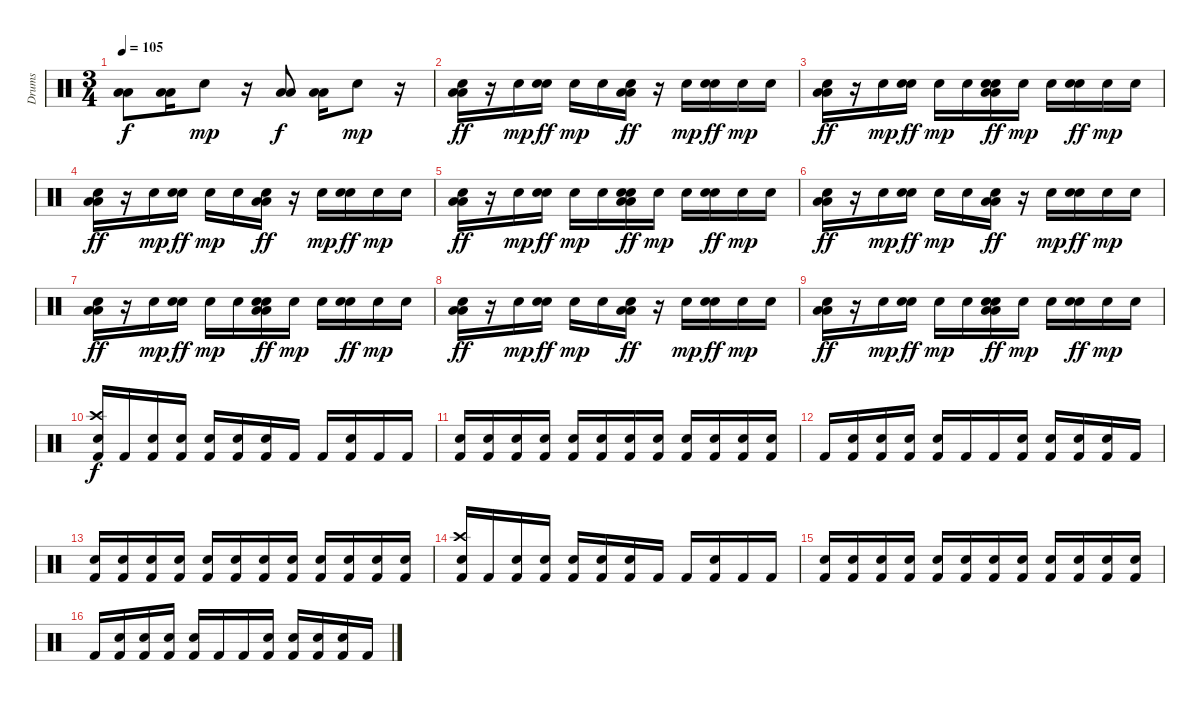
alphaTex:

\track ("Drums" "Drums") {instrument percussion}
\staff {score}
\articulation defaults
\ts (3 4)
\tempo 105
\clef neutral
\ks c
("Low Floor Tom (hit)" "Low Floor Tom (hit)").8{dy f} ("Low Floor Tom (hit)" "Low Floor Tom (hit)").16 "Hand Clap (hit)".8{dy mp} r.16 ("Low Floor Tom (hit)" "Low Floor Tom (hit)").8{dy f} ("Low Floor Tom (hit)" "Low Floor Tom (hit)").16 "Hand Clap (hit)".8{dy mp} r.16 |
("Low Floor Tom (hit)" "Low Floor Tom (hit)" "Hand Clap (hit)").16{dy ff} r.16 "Snare (hit) 2".16{dy mp} ("Snare (hit) 2" "Hand Clap (hit)").16{dy ff} "Snare (hit) 2".16{dy mp} "Snare (hit) 2".16 ("Low Floor Tom (hit)" "Low Floor Tom (hit)" "Hand Clap (hit)").16{dy ff} r.16 "Snare (hit) 2".16{dy mp} ("Snare (hit) 2" "Hand Clap (hit)").16{dy ff} "Snare (hit) 2".16{dy mp} "Snare (hit) 2".16 |
("Low Floor Tom (hit)" "Low Floor Tom (hit)" "Hand Clap (hit)").16{dy ff} r.16 "Snare (hit) 2".16{dy mp} ("Snare (hit) 2" "Hand Clap (hit)").16{dy ff} "Snare (hit) 2".16{dy mp} "Snare (hit) 2".16 ("Snare (hit) 2" "Low Floor Tom (hit)" "Low Floor Tom (hit)" "Hand Clap (hit)").16{dy ff} "Snare (hit) 2".16{dy mp} "Snare (hit) 2".16 ("Snare (hit) 2" "Hand Clap (hit)").16{dy ff} "Snare (hit) 2".16{dy mp} "Snare (hit) 2".16 |
("Low Floor Tom (hit)" "Low Floor Tom (hit)" "Hand Clap (hit)").16{dy ff} r.16 "Snare (hit) 2".16{dy mp} ("Snare (hit) 2" "Hand Clap (hit)").16{dy ff} "Snare (hit) 2".16{dy mp} "Snare (hit) 2".16 ("Low Floor Tom (hit)" "Low Floor Tom (hit)" "Hand Clap (hit)").16{dy ff} r.16 "Snare (hit) 2".16{dy mp} ("Snare (hit) 2" "Hand Clap (hit)").16{dy ff} "Snare (hit) 2".16{dy mp} "Snare (hit) 2".16 |
("Low Floor Tom (hit)" "Low Floor Tom (hit)" "Hand Clap (hit)").16{dy ff} r.16 "Snare (hit) 2".16{dy mp} ("Snare (hit) 2" "Hand Clap (hit)").16{dy ff} "Snare (hit) 2".16{dy mp} "Snare (hit) 2".16 ("Snare (hit) 2" "Low Floor Tom (hit)" "Low Floor Tom (hit)" "Hand Clap (hit)").16{dy ff} "Snare (hit) 2".16{dy mp} "Snare (hit) 2".16 ("Snare (hit) 2" "Hand Clap (hit)").16{dy ff} "Snare (hit) 2".16{dy mp} "Snare (hit) 2".16 |
("Low Floor Tom (hit)" "Low Floor Tom (hit)" "Hand Clap (hit)").16{dy ff} r.16 "Snare (hit) 2".16{dy mp} ("Snare (hit) 2" "Hand Clap (hit)").16{dy ff} "Snare (hit) 2".16{dy mp} "Snare (hit) 2".16 ("Low Floor Tom (hit)" "Low Floor Tom (hit)" "Hand Clap (hit)").16{dy ff} r.16 "Snare (hit) 2".16{dy mp} ("Snare (hit) 2" "Hand Clap (hit)").16{dy ff} "Snare (hit) 2".16{dy mp} "Snare (hit) 2".16 |
("Low Floor Tom (hit)" "Low Floor Tom (hit)" "Hand Clap (hit)").16{dy ff} r.16 "Snare (hit) 2".16{dy mp} ("Snare (hit) 2" "Hand Clap (hit)").16{dy ff} "Snare (hit) 2".16{dy mp} "Snare (hit) 2".16 ("Snare (hit) 2" "Low Floor Tom (hit)" "Low Floor Tom (hit)" "Hand Clap (hit)").16{dy ff} "Snare (hit) 2".16{dy mp} "Snare (hit) 2".16 ("Snare (hit) 2" "Hand Clap (hit)").16{dy ff} "Snare (hit) 2".16{dy mp} "Snare (hit) 2".16 |
("Low Floor Tom (hit)" "Low Floor Tom (hit)" "Hand Clap (hit)").16{dy ff} r.16 "Snare (hit) 2".16{dy mp} ("Snare (hit) 2" "Hand Clap (hit)").16{dy ff} "Snare (hit) 2".16{dy mp} "Snare (hit) 2".16 ("Low Floor Tom (hit)" "Low Floor Tom (hit)" "Hand Clap (hit)").16{dy ff} r.16 "Snare (hit) 2".16{dy mp} ("Snare (hit) 2" "Hand Clap (hit)").16{dy ff} "Snare (hit) 2".16{dy mp} "Snare (hit) 2".16 |
("Low Floor Tom (hit)" "Low Floor Tom (hit)" "Hand Clap (hit)").16{dy ff} r.16 "Snare (hit) 2".16{dy mp} ("Snare (hit) 2" "Hand Clap (hit)").16{dy ff} "Snare (hit) 2".16{dy mp} "Snare (hit) 2".16 ("Snare (hit) 2" "Low Floor Tom (hit)" "Low Floor Tom (hit)" "Hand Clap (hit)").16{dy ff} "Snare (hit) 2".16{dy mp} "Snare (hit) 2".16 ("Snare (hit) 2" "Hand Clap (hit)").16{dy ff} "Snare (hit) 2".16{dy mp} "Snare (hit) 2".16 |
("Crash high (hit)" "Snare (hit) 2" "Kick (hit) 2").16{dy f} "Kick (hit) 2".16 ("Snare (hit) 2" "Kick (hit) 2").16 ("Snare (hit) 2" "Kick (hit) 2").16 ("Snare (hit) 2" "Kick (hit) 2").16 ("Snare (hit) 2" "Kick (hit) 2").16 ("Snare (hit) 2" "Kick (hit) 2").16 "Kick (hit) 2".16 "Kick (hit) 2".16 ("Snare (hit) 2" "Kick (hit) 2").16 "Kick (hit) 2".16 "Kick (hit) 2".16 |
("Snare (hit) 2" "Kick (hit) 2").16 ("Snare (hit) 2" "Kick (hit) 2").16 ("Snare (hit) 2" "Kick (hit) 2").16 ("Snare (hit) 2" "Kick (hit) 2").16 ("Snare (hit) 2" "Kick (hit) 2").16 ("Snare (hit) 2" "Kick (hit) 2").16 ("Snare (hit) 2" "Kick (hit) 2").16 ("Snare (hit) 2" "Kick (hit) 2").16 ("Snare (hit) 2" "Kick (hit) 2").16 ("Snare (hit) 2" "Kick (hit) 2").16 ("Snare (hit) 2" "Kick (hit) 2").16 ("Snare (hit) 2" "Kick (hit) 2").16 |
"Kick (hit) 2".16 ("Snare (hit) 2" "Kick (hit) 2").16 ("Snare (hit) 2" "Kick (hit) 2").16 ("Snare (hit) 2" "Kick (hit) 2").16 ("Snare (hit) 2" "Kick (hit) 2").16 "Kick (hit) 2".16 "Kick (hit) 2".16 ("Snare (hit) 2" "Kick (hit) 2").16 ("Snare (hit) 2" "Kick (hit) 2").16 ("Snare (hit) 2" "Kick (hit) 2").16 ("Snare (hit) 2" "Kick (hit) 2").16 "Kick (hit) 2".16 |
("Snare (hit) 2" "Kick (hit) 2").16 ("Snare (hit) 2" "Kick (hit) 2").16 ("Snare (hit) 2" "Kick (hit) 2").16 ("Snare (hit) 2" "Kick (hit) 2").16 ("Snare (hit) 2" "Kick (hit) 2").16 ("Snare (hit) 2" "Kick (hit) 2").16 ("Snare (hit) 2" "Kick (hit) 2").16 ("Snare (hit) 2" "Kick (hit) 2").16 ("Snare (hit) 2" "Kick (hit) 2").16 ("Snare (hit) 2" "Kick (hit) 2").16 ("Snare (hit) 2" "Kick (hit) 2").16 ("Snare (hit) 2" "Kick (hit) 2").16 |
("Crash high (hit)" "Snare (hit) 2" "Kick (hit) 2").16 "Kick (hit) 2".16 ("Snare (hit) 2" "Kick (hit) 2").16 ("Snare (hit) 2" "Kick (hit) 2").16 ("Snare (hit) 2" "Kick (hit) 2").16 ("Snare (hit) 2" "Kick (hit) 2").16 ("Snare (hit) 2" "Kick (hit) 2").16 "Kick (hit) 2".16 "Kick (hit) 2".16 ("Snare (hit) 2" "Kick (hit) 2").16 "Kick (hit) 2".16 "Kick (hit) 2".16 |
("Snare (hit) 2" "Kick (hit) 2").16 ("Snare (hit) 2" "Kick (hit) 2").16 ("Snare (hit) 2" "Kick (hit) 2").16 ("Snare (hit) 2" "Kick (hit) 2").16 ("Snare (hit) 2" "Kick (hit) 2").16 ("Snare (hit) 2" "Kick (hit) 2").16 ("Snare (hit) 2" "Kick (hit) 2").16 ("Snare (hit) 2" "Kick (hit) 2").16 ("Snare (hit) 2" "Kick (hit) 2").16 ("Snare (hit) 2" "Kick (hit) 2").16 ("Snare (hit) 2" "Kick (hit) 2").16 ("Snare (hit) 2" "Kick (hit) 2").16 |
"Kick (hit) 2".16 ("Snare (hit) 2" "Kick (hit) 2").16 ("Snare (hit) 2" "Kick (hit) 2").16 ("Snare (hit) 2" "Kick (hit) 2").16 ("Snare (hit) 2" "Kick (hit) 2").16 "Kick (hit) 2".16 "Kick (hit) 2".16 ("Snare (hit) 2" "Kick (hit) 2").16 ("Snare (hit) 2" "Kick (hit) 2").16 ("Snare (hit) 2" "Kick (hit) 2").16 ("Snare (hit) 2" "Kick (hit) 2").16 "Kick (hit) 2".16
